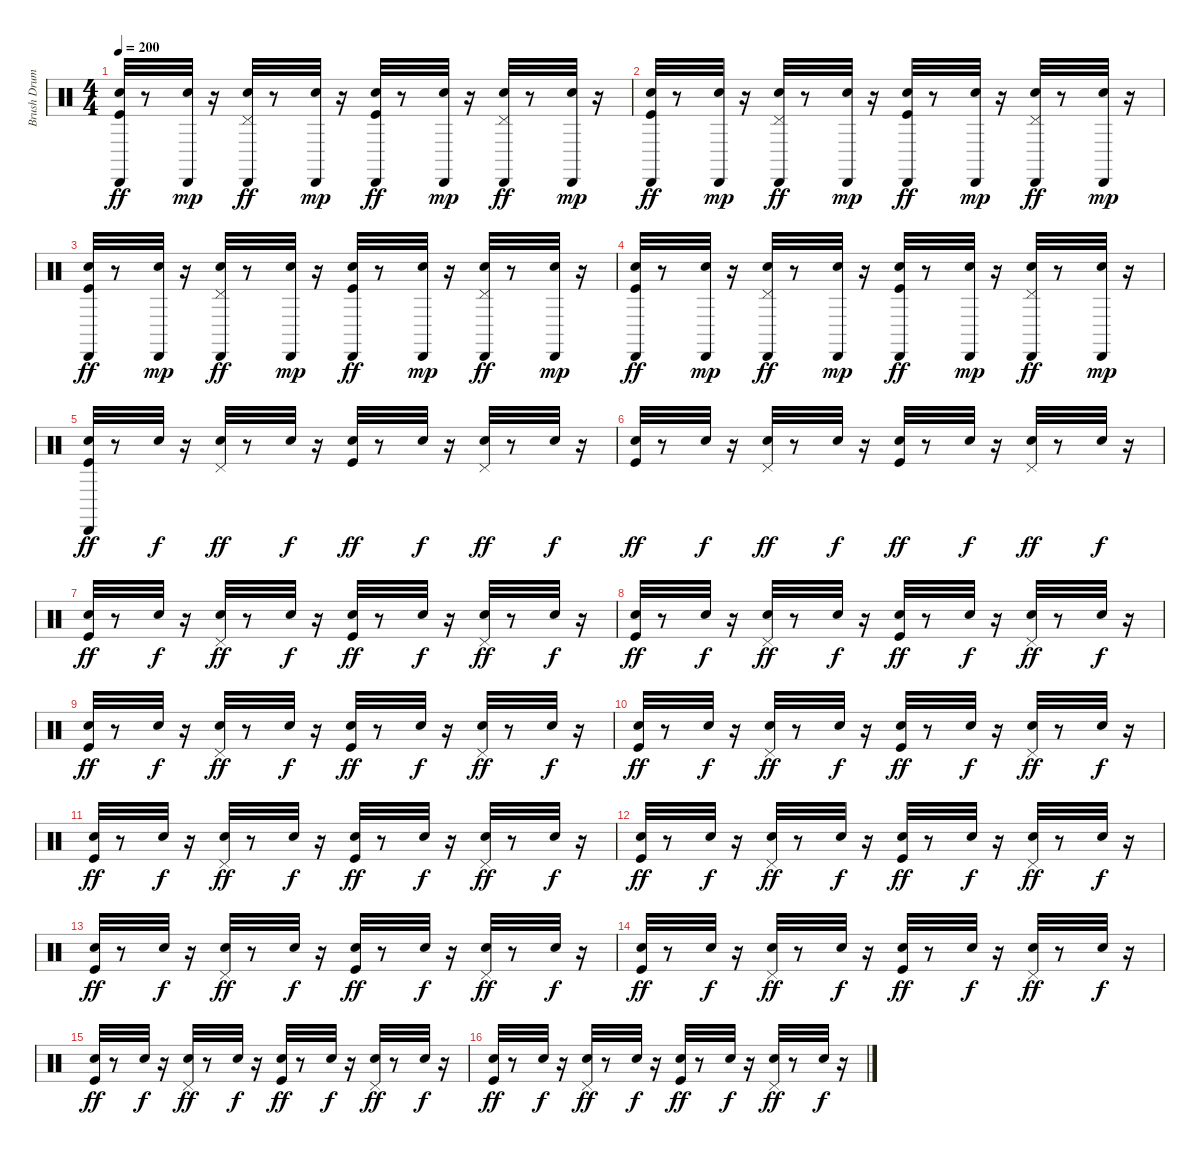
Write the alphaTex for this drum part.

\track ("Brush Drums" "Brush Drum") {instrument percussion}
\staff {score}
\articulation defaults
\ts (4 4)
\tempo 200
\clef neutral
\ks c
("Cabasa (hit)" "Snare (hit) 2" "Kick (hit)").32{dy ff} r.8 ("Cabasa (hit)" "Snare (hit) 2").32{dy mp} r.16 ("Cabasa (hit)" "Hand Clap (hit)" "Pedal Hi-Hat (hit)").32{dy ff} r.8 ("Cabasa (hit)" "Snare (hit) 2").32{dy mp} r.16 ("Cabasa (hit)" "Kick (hit)" "Snare (hit) 2").32{dy ff} r.8 ("Cabasa (hit)" "Snare (hit) 2").32{dy mp} r.16 ("Cabasa (hit)" "Hand Clap (hit)" "Pedal Hi-Hat (hit)").32{dy ff} r.8 ("Cabasa (hit)" "Snare (hit) 2").32{dy mp} r.16 |
("Cabasa (hit)" "Snare (hit) 2" "Kick (hit)").32{dy ff} r.8 ("Cabasa (hit)" "Snare (hit) 2").32{dy mp} r.16 ("Cabasa (hit)" "Hand Clap (hit)" "Pedal Hi-Hat (hit)").32{dy ff} r.8 ("Cabasa (hit)" "Snare (hit) 2").32{dy mp} r.16 ("Cabasa (hit)" "Kick (hit)" "Snare (hit) 2").32{dy ff} r.8 ("Cabasa (hit)" "Hand Clap (hit)").32{dy mp} r.16 ("Cabasa (hit)" "Pedal Hi-Hat (hit)" "Hand Clap (hit)").32{dy ff} r.8 ("Cabasa (hit)" "Snare (hit) 2").32{dy mp} r.16 |
("Cabasa (hit)" "Kick (hit)" "Snare (hit) 2").32{dy ff} r.8 ("Cabasa (hit)" "Snare (hit) 2").32{dy mp} r.16 ("Cabasa (hit)" "Pedal Hi-Hat (hit)" "Hand Clap (hit)").32{dy ff} r.8 ("Cabasa (hit)" "Snare (hit) 2").32{dy mp} r.16 ("Cabasa (hit)" "Snare (hit) 2" "Kick (hit)").32{dy ff} r.8 ("Cabasa (hit)" "Snare (hit) 2").32{dy mp} r.16 ("Cabasa (hit)" "Hand Clap (hit)" "Pedal Hi-Hat (hit)").32{dy ff} r.8 ("Cabasa (hit)" "Snare (hit) 2").32{dy mp} r.16 |
("Cabasa (hit)" "Snare (hit) 2" "Kick (hit)").32{dy ff} r.8 ("Cabasa (hit)" "Snare (hit) 2").32{dy mp} r.16 ("Cabasa (hit)" "Hand Clap (hit)" "Pedal Hi-Hat (hit)").32{dy ff} r.8 ("Cabasa (hit)" "Snare (hit) 2").32{dy mp} r.16 ("Cabasa (hit)" "Kick (hit)" "Snare (hit) 2").32{dy ff} r.8 ("Cabasa (hit)" "Hand Clap (hit)").32{dy mp} r.16 ("Cabasa (hit)" "Hand Clap (hit)" "Pedal Hi-Hat (hit)").32{dy ff} r.8 ("Cabasa (hit)" "Snare (hit) 2").32{dy mp} r.16 |
("Cabasa (hit)" "Kick (hit)" "Snare (hit) 2").32{dy ff} r.8 "Snare (hit) 2".32{dy f} r.16 ("Hand Clap (hit)" "Pedal Hi-Hat (hit)").32{dy ff} r.8 "Snare (hit) 2".32{dy f} r.16 ("Kick (hit)" "Snare (hit) 2").32{dy ff} r.8 "Snare (hit) 2".32{dy f} r.16 ("Pedal Hi-Hat (hit)" "Hand Clap (hit)").32{dy ff} r.8 "Snare (hit) 2".32{dy f} r.16 |
("Kick (hit)" "Snare (hit) 2").32{dy ff} r.8 "Snare (hit) 2".32{dy f} r.16 ("Pedal Hi-Hat (hit)" "Hand Clap (hit)").32{dy ff} r.8 "Snare (hit) 2".32{dy f} r.16 ("Kick (hit)" "Snare (hit) 2").32{dy ff} r.8 "Snare (hit) 2".32{dy f} r.16 ("Pedal Hi-Hat (hit)" "Hand Clap (hit)").32{dy ff} r.8 "Snare (hit) 2".32{dy f} r.16 |
("Kick (hit)" "Snare (hit) 2").32{dy ff} r.8 "Snare (hit) 2".32{dy f} r.16 ("Hand Clap (hit)" "Pedal Hi-Hat (hit)").32{dy ff} r.8 "Snare (hit) 2".32{dy f} r.16 ("Kick (hit)" "Snare (hit) 2").32{dy ff} r.8 "Snare (hit) 2".32{dy f} r.16 ("Pedal Hi-Hat (hit)" "Hand Clap (hit)").32{dy ff} r.8 "Snare (hit) 2".32{dy f} r.16 |
("Kick (hit)" "Snare (hit) 2").32{dy ff} r.8 "Snare (hit) 2".32{dy f} r.16 ("Hand Clap (hit)" "Pedal Hi-Hat (hit)").32{dy ff} r.8 "Snare (hit) 2".32{dy f} r.16 ("Kick (hit)" "Snare (hit) 2").32{dy ff} r.8 "Snare (hit) 2".32{dy f} r.16 ("Pedal Hi-Hat (hit)" "Hand Clap (hit)").32{dy ff} r.8 "Snare (hit) 2".32{dy f} r.16 |
("Snare (hit) 2" "Kick (hit)").32{dy ff} r.8 "Snare (hit) 2".32{dy f} r.16 ("Hand Clap (hit)" "Pedal Hi-Hat (hit)").32{dy ff} r.8 "Snare (hit) 2".32{dy f} r.16 ("Snare (hit) 2" "Kick (hit)").32{dy ff} r.8 "Snare (hit) 2".32{dy f} r.16 ("Pedal Hi-Hat (hit)" "Hand Clap (hit)").32{dy ff} r.8 "Snare (hit) 2".32{dy f} r.16 |
("Snare (hit) 2" "Kick (hit)").32{dy ff} r.8 "Snare (hit) 2".32{dy f} r.16 ("Hand Clap (hit)" "Pedal Hi-Hat (hit)").32{dy ff} r.8 "Snare (hit) 2".32{dy f} r.16 ("Snare (hit) 2" "Kick (hit)").32{dy ff} r.8 "Snare (hit) 2".32{dy f} r.16 ("Pedal Hi-Hat (hit)" "Hand Clap (hit)").32{dy ff} r.8 "Snare (hit) 2".32{dy f} r.16 |
("Snare (hit) 2" "Kick (hit)").32{dy ff} r.8 "Snare (hit) 2".32{dy f} r.16 ("Pedal Hi-Hat (hit)" "Hand Clap (hit)").32{dy ff} r.8 "Snare (hit) 2".32{dy f} r.16 ("Kick (hit)" "Snare (hit) 2").32{dy ff} r.8 "Snare (hit) 2".32{dy f} r.16 ("Hand Clap (hit)" "Pedal Hi-Hat (hit)").32{dy ff} r.8 "Snare (hit) 2".32{dy f} r.16 |
("Kick (hit)" "Snare (hit) 2").32{dy ff} r.8 "Snare (hit) 2".32{dy f} r.16 ("Pedal Hi-Hat (hit)" "Hand Clap (hit)").32{dy ff} r.8 "Snare (hit) 2".32{dy f} r.16 ("Kick (hit)" "Snare (hit) 2").32{dy ff} r.8 "Snare (hit) 2".32{dy f} r.16 ("Hand Clap (hit)" "Pedal Hi-Hat (hit)").32{dy ff} r.8 "Snare (hit) 2".32{dy f} r.16 |
("Snare (hit) 2" "Kick (hit)").32{dy ff} r.8 "Snare (hit) 2".32{dy f} r.16 ("Pedal Hi-Hat (hit)" "Hand Clap (hit)").32{dy ff} r.8 "Snare (hit) 2".32{dy f} r.16 ("Snare (hit) 2" "Kick (hit)").32{dy ff} r.8 "Snare (hit) 2".32{dy f} r.16 ("Hand Clap (hit)" "Pedal Hi-Hat (hit)").32{dy ff} r.8 "Snare (hit) 2".32{dy f} r.16 |
("Snare (hit) 2" "Kick (hit)").32{dy ff} r.8 "Snare (hit) 2".32{dy f} r.16 ("Hand Clap (hit)" "Pedal Hi-Hat (hit)").32{dy ff} r.8 "Snare (hit) 2".32{dy f} r.16 ("Snare (hit) 2" "Kick (hit)").32{dy ff} r.8 "Snare (hit) 2".32{dy f} r.16 ("Pedal Hi-Hat (hit)" "Hand Clap (hit)").32{dy ff} r.8 "Snare (hit) 2".32{dy f} r.16 |
("Kick (hit)" "Snare (hit) 2").32{dy ff} r.8 "Snare (hit) 2".32{dy f} r.16 ("Pedal Hi-Hat (hit)" "Hand Clap (hit)").32{dy ff} r.8 "Snare (hit) 2".32{dy f} r.16 ("Snare (hit) 2" "Kick (hit)").32{dy ff} r.8 "Snare (hit) 2".32{dy f} r.16 ("Pedal Hi-Hat (hit)" "Hand Clap (hit)").32{dy ff} r.8 "Snare (hit) 2".32{dy f} r.16 |
("Kick (hit)" "Snare (hit) 2").32{dy ff} r.8 "Snare (hit) 2".32{dy f} r.16 ("Pedal Hi-Hat (hit)" "Hand Clap (hit)").32{dy ff} r.8 "Snare (hit) 2".32{dy f} r.16 ("Snare (hit) 2" "Kick (hit)").32{dy ff} r.8 "Hand Clap (hit)".32{dy f} r.16 ("Hand Clap (hit)" "Pedal Hi-Hat (hit)").32{dy ff} r.8 "Snare (hit) 2".32{dy f} r.16
